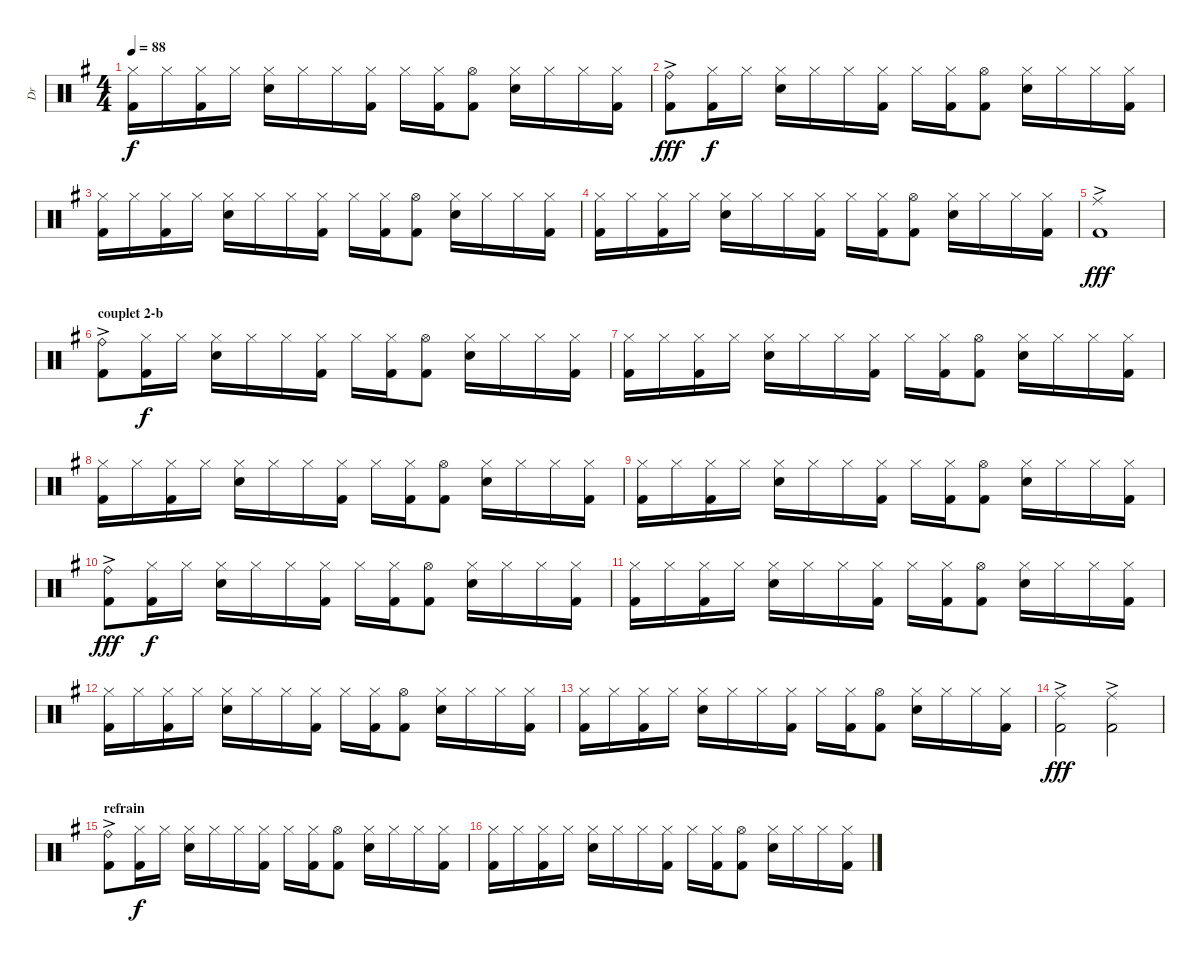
\track ("Dr" "Dr") {instrument percussion}
\staff {score}
\articulation defaults
\ts (4 4)
\tempo 88
\clef neutral
\ks g
("Hi-Hat (closed)" "Kick (hit) 2").16{dy f} "Hi-Hat (closed)".16 ("Hi-Hat (closed)" "Kick (hit) 2").16 "Hi-Hat (closed)".16 ("Hi-Hat (closed)" "Electric Snare (hit)").16 "Hi-Hat (closed)".16 "Hi-Hat (closed)".16 ("Hi-Hat (closed)" "Kick (hit) 2").16 "Hi-Hat (closed)".16 ("Hi-Hat (closed)" "Kick (hit) 2").16 ("Hi-Hat (open)" "Kick (hit) 2").8 ("Hi-Hat (closed)" "Electric Snare (hit)").16 "Hi-Hat (closed)".16 "Hi-Hat (closed)".16 ("Hi-Hat (closed)" "Kick (hit) 2").16 |
("Ride (bell)"{ac} "Kick (hit) 2"{ac}).8{dy fff} ("Hi-Hat (closed)" "Kick (hit) 2").16{dy f} "Hi-Hat (closed)".16 ("Hi-Hat (closed)" "Electric Snare (hit)").16 "Hi-Hat (closed)".16 "Hi-Hat (closed)".16 ("Hi-Hat (closed)" "Kick (hit) 2").16 "Hi-Hat (closed)".16 ("Hi-Hat (closed)" "Kick (hit) 2").16 ("Hi-Hat (open)" "Kick (hit) 2").8 ("Hi-Hat (closed)" "Electric Snare (hit)").16 "Hi-Hat (closed)".16 "Hi-Hat (closed)".16 ("Hi-Hat (closed)" "Kick (hit) 2").16 |
("Hi-Hat (closed)" "Kick (hit) 2").16 "Hi-Hat (closed)".16 ("Hi-Hat (closed)" "Kick (hit) 2").16 "Hi-Hat (closed)".16 ("Hi-Hat (closed)" "Electric Snare (hit)").16 "Hi-Hat (closed)".16 "Hi-Hat (closed)".16 ("Hi-Hat (closed)" "Kick (hit) 2").16 "Hi-Hat (closed)".16 ("Hi-Hat (closed)" "Kick (hit) 2").16 ("Hi-Hat (open)" "Kick (hit) 2").8 ("Hi-Hat (closed)" "Electric Snare (hit)").16 "Hi-Hat (closed)".16 "Hi-Hat (closed)".16 ("Hi-Hat (closed)" "Kick (hit) 2").16 |
("Hi-Hat (closed)" "Kick (hit) 2").16 "Hi-Hat (closed)".16 ("Hi-Hat (closed)" "Kick (hit) 2").16 "Hi-Hat (closed)".16 ("Hi-Hat (closed)" "Electric Snare (hit)").16 "Hi-Hat (closed)".16 "Hi-Hat (closed)".16 ("Hi-Hat (closed)" "Kick (hit) 2").16 "Hi-Hat (closed)".16 ("Hi-Hat (closed)" "Kick (hit) 2").16 ("Hi-Hat (open)" "Kick (hit) 2").8 ("Hi-Hat (closed)" "Electric Snare (hit)").16 "Hi-Hat (closed)".16 "Hi-Hat (closed)".16 ("Hi-Hat (closed)" "Kick (hit) 2").16 |
("Ride (middle)"{ac} "Kick (hit) 2"{ac}).1{dy fff} |
\section ("" "couplet 2-b")
("Ride (bell)"{ac} "Kick (hit) 2"{ac}).8 ("Hi-Hat (closed)" "Kick (hit) 2").16{dy f} "Hi-Hat (closed)".16 ("Hi-Hat (closed)" "Electric Snare (hit)").16 "Hi-Hat (closed)".16 "Hi-Hat (closed)".16 ("Hi-Hat (closed)" "Kick (hit) 2").16 "Hi-Hat (closed)".16 ("Hi-Hat (closed)" "Kick (hit) 2").16 ("Hi-Hat (open)" "Kick (hit) 2").8 ("Hi-Hat (closed)" "Electric Snare (hit)").16 "Hi-Hat (closed)".16 "Hi-Hat (closed)".16 ("Hi-Hat (closed)" "Kick (hit) 2").16 |
("Hi-Hat (closed)" "Kick (hit) 2").16 "Hi-Hat (closed)".16 ("Hi-Hat (closed)" "Kick (hit) 2").16 "Hi-Hat (closed)".16 ("Hi-Hat (closed)" "Electric Snare (hit)").16 "Hi-Hat (closed)".16 "Hi-Hat (closed)".16 ("Hi-Hat (closed)" "Kick (hit) 2").16 "Hi-Hat (closed)".16 ("Hi-Hat (closed)" "Kick (hit) 2").16 ("Hi-Hat (open)" "Kick (hit) 2").8 ("Hi-Hat (closed)" "Electric Snare (hit)").16 "Hi-Hat (closed)".16 "Hi-Hat (closed)".16 ("Hi-Hat (closed)" "Kick (hit) 2").16 |
("Hi-Hat (closed)" "Kick (hit) 2").16 "Hi-Hat (closed)".16 ("Hi-Hat (closed)" "Kick (hit) 2").16 "Hi-Hat (closed)".16 ("Hi-Hat (closed)" "Electric Snare (hit)").16 "Hi-Hat (closed)".16 "Hi-Hat (closed)".16 ("Hi-Hat (closed)" "Kick (hit) 2").16 "Hi-Hat (closed)".16 ("Hi-Hat (closed)" "Kick (hit) 2").16 ("Hi-Hat (open)" "Kick (hit) 2").8 ("Hi-Hat (closed)" "Electric Snare (hit)").16 "Hi-Hat (closed)".16 "Hi-Hat (closed)".16 ("Hi-Hat (closed)" "Kick (hit) 2").16 |
("Hi-Hat (closed)" "Kick (hit) 2").16 "Hi-Hat (closed)".16 ("Hi-Hat (closed)" "Kick (hit) 2").16 "Hi-Hat (closed)".16 ("Hi-Hat (closed)" "Electric Snare (hit)").16 "Hi-Hat (closed)".16 "Hi-Hat (closed)".16 ("Hi-Hat (closed)" "Kick (hit) 2").16 "Hi-Hat (closed)".16 ("Hi-Hat (closed)" "Kick (hit) 2").16 ("Hi-Hat (open)" "Kick (hit) 2").8 ("Hi-Hat (closed)" "Electric Snare (hit)").16 "Hi-Hat (closed)".16 "Hi-Hat (closed)".16 ("Hi-Hat (closed)" "Kick (hit) 2").16 |
("Ride (bell)"{ac} "Kick (hit) 2"{ac}).8{dy fff} ("Hi-Hat (closed)" "Kick (hit) 2").16{dy f} "Hi-Hat (closed)".16 ("Hi-Hat (closed)" "Electric Snare (hit)").16 "Hi-Hat (closed)".16 "Hi-Hat (closed)".16 ("Hi-Hat (closed)" "Kick (hit) 2").16 "Hi-Hat (closed)".16 ("Hi-Hat (closed)" "Kick (hit) 2").16 ("Hi-Hat (open)" "Kick (hit) 2").8 ("Hi-Hat (closed)" "Electric Snare (hit)").16 "Hi-Hat (closed)".16 "Hi-Hat (closed)".16 ("Hi-Hat (closed)" "Kick (hit) 2").16 |
("Hi-Hat (closed)" "Kick (hit) 2").16 "Hi-Hat (closed)".16 ("Hi-Hat (closed)" "Kick (hit) 2").16 "Hi-Hat (closed)".16 ("Hi-Hat (closed)" "Electric Snare (hit)").16 "Hi-Hat (closed)".16 "Hi-Hat (closed)".16 ("Hi-Hat (closed)" "Kick (hit) 2").16 "Hi-Hat (closed)".16 ("Hi-Hat (closed)" "Kick (hit) 2").16 ("Hi-Hat (open)" "Kick (hit) 2").8 ("Hi-Hat (closed)" "Electric Snare (hit)").16 "Hi-Hat (closed)".16 "Hi-Hat (closed)".16 ("Hi-Hat (closed)" "Kick (hit) 2").16 |
("Hi-Hat (closed)" "Kick (hit) 2").16 "Hi-Hat (closed)".16 ("Hi-Hat (closed)" "Kick (hit) 2").16 "Hi-Hat (closed)".16 ("Hi-Hat (closed)" "Electric Snare (hit)").16 "Hi-Hat (closed)".16 "Hi-Hat (closed)".16 ("Hi-Hat (closed)" "Kick (hit) 2").16 "Hi-Hat (closed)".16 ("Hi-Hat (closed)" "Kick (hit) 2").16 ("Hi-Hat (open)" "Kick (hit) 2").8 ("Hi-Hat (closed)" "Electric Snare (hit)").16 "Hi-Hat (closed)".16 "Hi-Hat (closed)".16 ("Hi-Hat (closed)" "Kick (hit) 2").16 |
("Hi-Hat (closed)" "Kick (hit) 2").16 "Hi-Hat (closed)".16 ("Hi-Hat (closed)" "Kick (hit) 2").16 "Hi-Hat (closed)".16 ("Hi-Hat (closed)" "Electric Snare (hit)").16 "Hi-Hat (closed)".16 "Hi-Hat (closed)".16 ("Hi-Hat (closed)" "Kick (hit) 2").16 "Hi-Hat (closed)".16 ("Hi-Hat (closed)" "Kick (hit) 2").16 ("Hi-Hat (open)" "Kick (hit) 2").8 ("Hi-Hat (closed)" "Electric Snare (hit)").16 "Hi-Hat (closed)".16 "Hi-Hat (closed)".16 ("Hi-Hat (closed)" "Kick (hit) 2").16 |
("Ride (middle)"{ac} "Kick (hit) 2"{ac}).2{dy fff} ("Ride (middle)"{ac} "Kick (hit) 2"{ac}).2 |
\section ("" "refrain")
("Ride (bell)"{ac} "Kick (hit) 2"{ac}).8 ("Hi-Hat (closed)" "Kick (hit) 2").16{dy f} "Hi-Hat (closed)".16 ("Hi-Hat (closed)" "Electric Snare (hit)").16 "Hi-Hat (closed)".16 "Hi-Hat (closed)".16 ("Hi-Hat (closed)" "Kick (hit) 2").16 "Hi-Hat (closed)".16 ("Hi-Hat (closed)" "Kick (hit) 2").16 ("Hi-Hat (open)" "Kick (hit) 2").8 ("Hi-Hat (closed)" "Electric Snare (hit)").16 "Hi-Hat (closed)".16 "Hi-Hat (closed)".16 ("Hi-Hat (closed)" "Kick (hit) 2").16 |
("Hi-Hat (closed)" "Kick (hit) 2").16 "Hi-Hat (closed)".16 ("Hi-Hat (closed)" "Kick (hit) 2").16 "Hi-Hat (closed)".16 ("Hi-Hat (closed)" "Electric Snare (hit)").16 "Hi-Hat (closed)".16 "Hi-Hat (closed)".16 ("Hi-Hat (closed)" "Kick (hit) 2").16 "Hi-Hat (closed)".16 ("Hi-Hat (closed)" "Kick (hit) 2").16 ("Hi-Hat (open)" "Kick (hit) 2").8 ("Hi-Hat (closed)" "Electric Snare (hit)").16 "Hi-Hat (closed)".16 "Hi-Hat (closed)".16 ("Hi-Hat (closed)" "Kick (hit) 2").16
